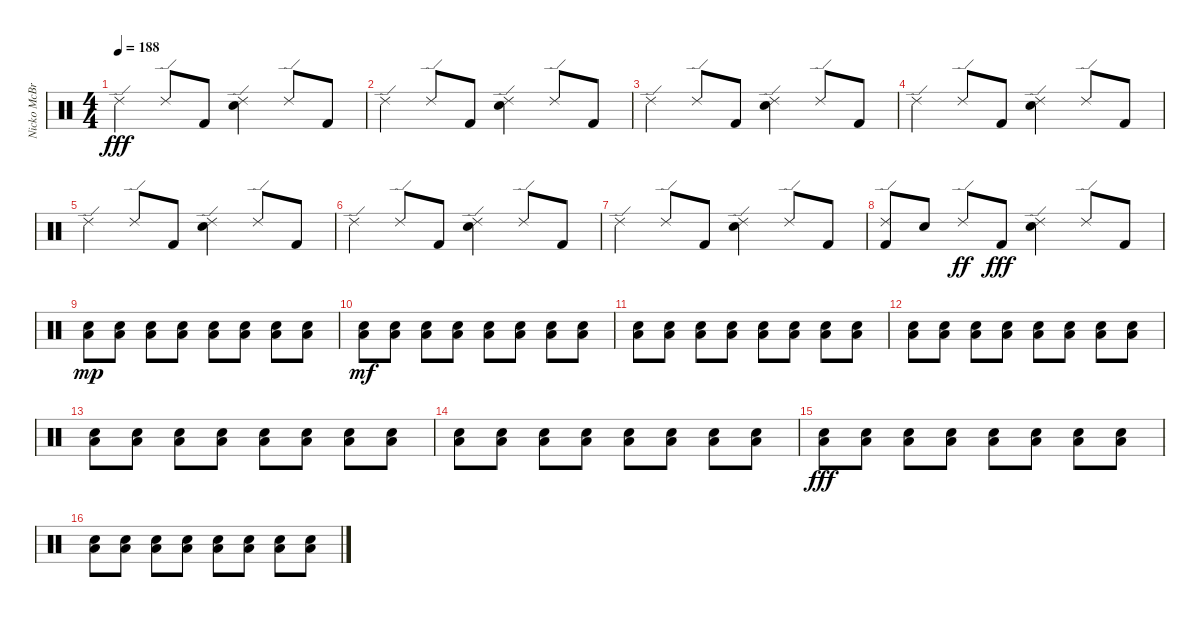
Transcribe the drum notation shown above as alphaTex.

\track ("Nicko McBrain" "Nicko McBr") {instrument percussion}
\staff {score}
\articulation defaults
\ts (4 4)
\tempo 188
\clef neutral
\ks c "Ride (edge) 2".4{dy fff} "Ride (edge) 2".8 "Kick (hit) 2".8
("Ride (edge) 2" "Electric Snare (hit)").4 "Ride (edge) 2".8 "Kick (hit) 2".8 |
"Ride (edge) 2".4 "Ride (edge) 2".8 "Kick (hit) 2".8 ("Ride (edge) 2" "Electric Snare (hit)").4 "Ride (edge) 2".8 "Kick (hit) 2".8 |
"Ride (edge) 2".4 "Ride (edge) 2".8 "Kick (hit) 2".8 ("Ride (edge) 2" "Electric Snare (hit)").4 "Ride (edge) 2".8 "Kick (hit) 2".8 |
"Ride (edge) 2".4 "Ride (edge) 2".8 "Kick (hit) 2".8 ("Ride (edge) 2" "Electric Snare (hit)").4 "Ride (edge) 2".8 "Kick (hit) 2".8 |
"Ride (edge) 2".4 "Ride (edge) 2".8 "Kick (hit) 2".8 ("Ride (edge) 2" "Electric Snare (hit)").4 "Ride (edge) 2".8 "Kick (hit) 2".8 |
"Ride (edge) 2".4 "Ride (edge) 2".8 "Kick (hit) 2".8 ("Ride (edge) 2" "Electric Snare (hit)").4 "Ride (edge) 2".8 "Kick (hit) 2".8 |
"Ride (edge) 2".4 "Ride (edge) 2".8 "Kick (hit) 2".8 ("Ride (edge) 2" "Electric Snare (hit)").4 "Ride (edge) 2".8 "Kick (hit) 2".8 |
("Ride (edge) 2" "Kick (hit) 2").8 "Electric Snare (hit)".8 "Ride (edge) 2".8{dy ff} "Kick (hit) 2".8{dy fff} ("Ride (edge) 2" "Electric Snare (hit)").4 "Ride (edge) 2".8 "Kick (hit) 2".8 |
("Electric Snare (hit)" "Low Floor Tom (hit)").8{dy mp} ("Electric Snare (hit)" "Low Floor Tom (hit)").8 ("Electric Snare (hit)" "Low Floor Tom (hit)").8 ("Electric Snare (hit)" "Low Floor Tom (hit)").8 ("Electric Snare (hit)" "Low Floor Tom (hit)").8 ("Electric Snare (hit)" "Low Floor Tom (hit)").8 ("Electric Snare (hit)" "Low Floor Tom (hit)").8 ("Electric Snare (hit)" "Low Floor Tom (hit)").8 |
("Electric Snare (hit)" "Low Floor Tom (hit)").8{dy mf} ("Electric Snare (hit)" "Low Floor Tom (hit)").8 ("Electric Snare (hit)" "Low Floor Tom (hit)").8 ("Electric Snare (hit)" "Low Floor Tom (hit)").8 ("Electric Snare (hit)" "Low Floor Tom (hit)").8 ("Electric Snare (hit)" "Low Floor Tom (hit)").8 ("Electric Snare (hit)" "Low Floor Tom (hit)").8 ("Electric Snare (hit)" "Low Floor Tom (hit)").8 |
("Electric Snare (hit)" "Low Floor Tom (hit)").8 ("Electric Snare (hit)" "Low Floor Tom (hit)").8 ("Electric Snare (hit)" "Low Floor Tom (hit)").8 ("Electric Snare (hit)" "Low Floor Tom (hit)").8 ("Electric Snare (hit)" "Low Floor Tom (hit)").8 ("Electric Snare (hit)" "Low Floor Tom (hit)").8 ("Electric Snare (hit)" "Low Floor Tom (hit)").8 ("Electric Snare (hit)" "Low Floor Tom (hit)").8 |
("Electric Snare (hit)" "Low Floor Tom (hit)").8 ("Electric Snare (hit)" "Low Floor Tom (hit)").8 ("Electric Snare (hit)" "Low Floor Tom (hit)").8 ("Electric Snare (hit)" "Low Floor Tom (hit)").8 ("Electric Snare (hit)" "Low Floor Tom (hit)").8 ("Electric Snare (hit)" "Low Floor Tom (hit)").8 ("Electric Snare (hit)" "Low Floor Tom (hit)").8 ("Electric Snare (hit)" "Low Floor Tom (hit)").8 |
("Electric Snare (hit)" "Low Floor Tom (hit)").8 ("Electric Snare (hit)" "Low Floor Tom (hit)").8 ("Electric Snare (hit)" "Low Floor Tom (hit)").8 ("Electric Snare (hit)" "Low Floor Tom (hit)").8 ("Electric Snare (hit)" "Low Floor Tom (hit)").8 ("Electric Snare (hit)" "Low Floor Tom (hit)").8 ("Electric Snare (hit)" "Low Floor Tom (hit)").8 ("Electric Snare (hit)" "Low Floor Tom (hit)").8 |
("Electric Snare (hit)" "Low Floor Tom (hit)").8 ("Electric Snare (hit)" "Low Floor Tom (hit)").8 ("Electric Snare (hit)" "Low Floor Tom (hit)").8 ("Electric Snare (hit)" "Low Floor Tom (hit)").8 ("Electric Snare (hit)" "Low Floor Tom (hit)").8 ("Electric Snare (hit)" "Low Floor Tom (hit)").8 ("Electric Snare (hit)" "Low Floor Tom (hit)").8 ("Electric Snare (hit)" "Low Floor Tom (hit)").8 |
("Electric Snare (hit)" "Low Floor Tom (hit)").8{dy fff} ("Electric Snare (hit)" "Low Floor Tom (hit)").8 ("Electric Snare (hit)" "Low Floor Tom (hit)").8 ("Electric Snare (hit)" "Low Floor Tom (hit)").8 ("Electric Snare (hit)" "Low Floor Tom (hit)").8 ("Electric Snare (hit)" "Low Floor Tom (hit)").8 ("Electric Snare (hit)" "Low Floor Tom (hit)").8 ("Electric Snare (hit)" "Low Floor Tom (hit)").8 |
("Electric Snare (hit)" "Low Floor Tom (hit)").8 ("Electric Snare (hit)" "Low Floor Tom (hit)").8 ("Electric Snare (hit)" "Low Floor Tom (hit)").8 ("Electric Snare (hit)" "Low Floor Tom (hit)").8 ("Electric Snare (hit)" "Low Floor Tom (hit)").8 ("Electric Snare (hit)" "Low Floor Tom (hit)").8 ("Electric Snare (hit)" "Low Floor Tom (hit)").8 ("Electric Snare (hit)" "Low Floor Tom (hit)").8
